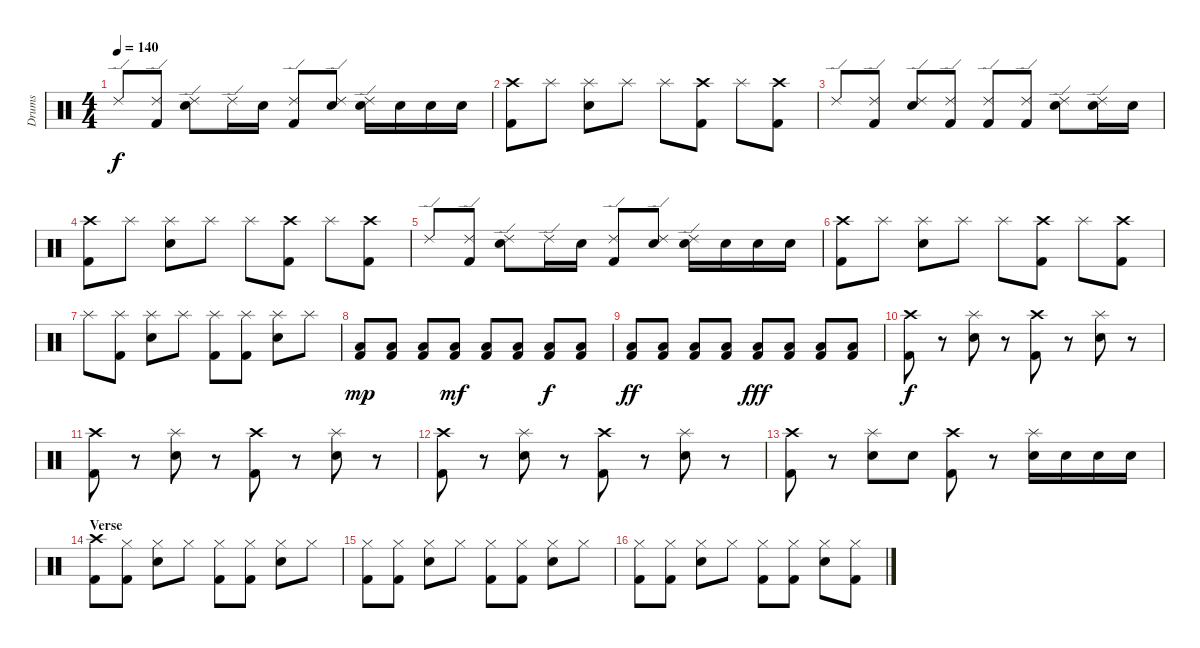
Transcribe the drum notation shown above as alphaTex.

\track ("Drums" "Drums") {instrument percussion}
\staff {score}
\articulation defaults
\ts (4 4)
\tempo 140
\clef neutral
\ks c "Ride (edge) 2".8{dy f}
("Ride (edge) 2" "Kick (hit) 2").8 ("Ride (edge) 2" "Electric Snare (hit)").8 "Ride (edge) 2".16 "Electric Snare (hit)".16 ("Ride (edge) 2" "Kick (hit) 2").8 ("Ride (edge) 2" "Electric Snare (hit)").8 ("Ride (edge) 2" "Electric Snare (hit)").16 "Electric Snare (hit)".16 "Electric Snare (hit)".16 "Electric Snare (hit)".16 |
("Crash high (hit)" "Kick (hit) 2").8 "Splash (hit)".8 ("Splash (hit)" "Electric Snare (hit)").8 "Splash (hit)".8 "Splash (hit)".8 ("Crash high (hit)" "Kick (hit) 2").8 "Splash (hit)".8 ("Crash high (hit)" "Kick (hit) 2").8 |
"Ride (edge) 2".8 ("Ride (edge) 2" "Kick (hit) 2").8 ("Ride (edge) 2" "Electric Snare (hit)").8 ("Ride (edge) 2" "Kick (hit) 2").8 ("Ride (edge) 2" "Kick (hit) 2").8 ("Ride (edge) 2" "Kick (hit) 2").8 ("Ride (edge) 2" "Electric Snare (hit)").8 ("Ride (edge) 2" "Electric Snare (hit)").16 "Electric Snare (hit)".16 |
("Crash high (hit)" "Kick (hit) 2").8 "Splash (hit)".8 ("Splash (hit)" "Electric Snare (hit)").8 "Splash (hit)".8 "Splash (hit)".8 ("Crash high (hit)" "Kick (hit) 2").8 "Splash (hit)".8 ("Crash high (hit)" "Kick (hit) 2").8 |
"Ride (edge) 2".8 ("Ride (edge) 2" "Kick (hit) 2").8 ("Ride (edge) 2" "Electric Snare (hit)").8 "Ride (edge) 2".16 "Electric Snare (hit)".16 ("Ride (edge) 2" "Kick (hit) 2").8 ("Ride (edge) 2" "Electric Snare (hit)").8 ("Ride (edge) 2" "Electric Snare (hit)").16 "Electric Snare (hit)".16 "Electric Snare (hit)".16 "Electric Snare (hit)".16 |
("Crash high (hit)" "Kick (hit) 2").8 "Splash (hit)".8 ("Splash (hit)" "Electric Snare (hit)").8 "Splash (hit)".8 "Splash (hit)".8 ("Crash high (hit)" "Kick (hit) 2").8 "Splash (hit)".8 ("Crash high (hit)" "Kick (hit) 2").8 |
"Splash (hit)".8 ("Splash (hit)" "Kick (hit) 2").8 ("Splash (hit)" "Electric Snare (hit)").8 "Splash (hit)".8 ("Splash (hit)" "Kick (hit) 2").8 ("Splash (hit)" "Kick (hit) 2").8 ("Splash (hit)" "Electric Snare (hit)").8 "Splash (hit)".8 |
("Low Floor Tom (hit)" "Kick (hit) 2").8{dy mp} ("Low Floor Tom (hit)" "Kick (hit) 2").8 ("Low Floor Tom (hit)" "Kick (hit) 2").8 ("Low Floor Tom (hit)" "Kick (hit) 2").8{dy mf} ("Low Floor Tom (hit)" "Kick (hit) 2").8 ("Low Floor Tom (hit)" "Kick (hit) 2").8 ("Low Floor Tom (hit)" "Kick (hit) 2").8{dy f} ("Low Floor Tom (hit)" "Kick (hit) 2").8 |
("Low Floor Tom (hit)" "Kick (hit) 2").8{dy ff} ("Low Floor Tom (hit)" "Kick (hit) 2").8 ("Low Floor Tom (hit)" "Kick (hit) 2").8 ("Low Floor Tom (hit)" "Kick (hit) 2").8 ("Low Floor Tom (hit)" "Kick (hit) 2").8{dy fff} ("Low Floor Tom (hit)" "Kick (hit) 2").8 ("Low Floor Tom (hit)" "Kick (hit) 2").8 ("Low Floor Tom (hit)" "Kick (hit) 2").8 |
("Crash high (hit)" "Kick (hit) 2").8{dy f} r.8 ("Splash (hit)" "Electric Snare (hit)").8 r.8 ("Crash high (hit)" "Kick (hit) 2").8 r.8 ("Splash (hit)" "Electric Snare (hit)").8 r.8 |
("Crash high (hit)" "Kick (hit) 2").8 r.8 ("Splash (hit)" "Electric Snare (hit)").8 r.8 ("Crash high (hit)" "Kick (hit) 2").8 r.8 ("Splash (hit)" "Electric Snare (hit)").8 r.8 |
("Crash high (hit)" "Kick (hit) 2").8 r.8 ("Splash (hit)" "Electric Snare (hit)").8 r.8 ("Crash high (hit)" "Kick (hit) 2").8 r.8 ("Splash (hit)" "Electric Snare (hit)").8 r.8 |
("Crash high (hit)" "Kick (hit) 2").8 r.8 ("Splash (hit)" "Electric Snare (hit)").8 "Electric Snare (hit)".8 ("Crash high (hit)" "Kick (hit) 2").8 r.8 ("Splash (hit)" "Electric Snare (hit)").16 "Electric Snare (hit)".16 "Electric Snare (hit)".16 "Electric Snare (hit)".16 |
\section ("" "Verse")
("Crash high (hit)" "Kick (hit) 2").8 ("Hi-Hat (closed)" "Kick (hit) 2").8 ("Hi-Hat (closed)" "Electric Snare (hit)").8 "Hi-Hat (closed)".8 ("Hi-Hat (closed)" "Kick (hit) 2").8 ("Hi-Hat (closed)" "Kick (hit) 2").8 ("Hi-Hat (closed)" "Electric Snare (hit)").8 "Hi-Hat (closed)".8 |
("Hi-Hat (closed)" "Kick (hit) 2").8 ("Hi-Hat (closed)" "Kick (hit) 2").8 ("Hi-Hat (closed)" "Electric Snare (hit)").8 "Hi-Hat (closed)".8 ("Hi-Hat (closed)" "Kick (hit) 2").8 ("Hi-Hat (closed)" "Kick (hit) 2").8 ("Hi-Hat (closed)" "Electric Snare (hit)").8 "Hi-Hat (closed)".8 |
("Hi-Hat (closed)" "Kick (hit) 2").8 ("Hi-Hat (closed)" "Kick (hit) 2").8 ("Hi-Hat (closed)" "Electric Snare (hit)").8 "Hi-Hat (closed)".8 ("Hi-Hat (closed)" "Kick (hit) 2").8 ("Hi-Hat (closed)" "Kick (hit) 2").8 ("Hi-Hat (closed)" "Electric Snare (hit)").8 ("Hi-Hat (closed)" "Kick (hit) 2").8
